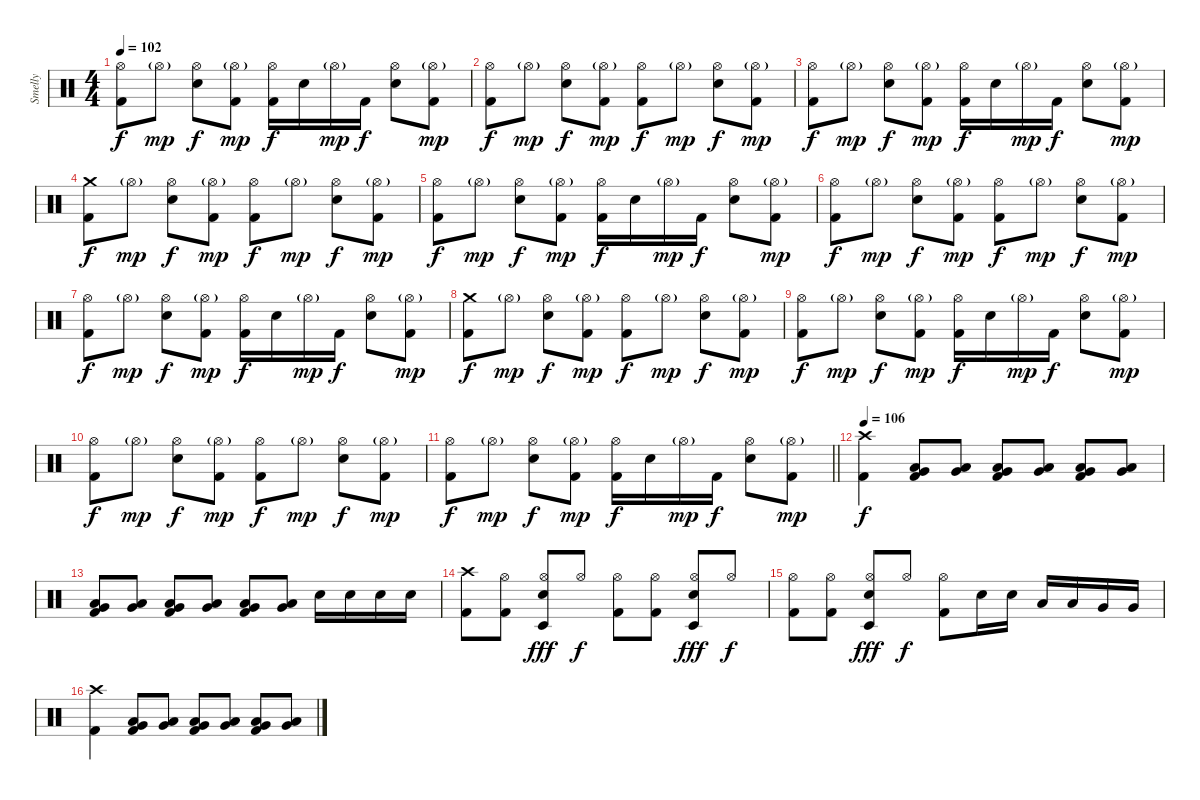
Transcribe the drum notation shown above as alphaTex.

\track ("Smelly" "Smelly") {instrument percussion}
\staff {score}
\articulation defaults
\ts (4 4)
\tempo 102
\clef neutral
\ks c
("Hi-Hat (open)" "Kick (hit) 2").8{dy f} "Hi-Hat (open)"{g}.8{dy mp} ("Hi-Hat (open)" "Electric Snare (hit)").8{dy f} ("Hi-Hat (open)"{g} "Kick (hit) 2").8{dy mp} ("Hi-Hat (open)" "Kick (hit) 2").16{dy f} "Electric Snare (hit)".16 "Hi-Hat (open)"{g}.16{dy mp} "Kick (hit) 2".16{dy f} ("Hi-Hat (open)" "Electric Snare (hit)").8 ("Hi-Hat (open)"{g} "Kick (hit) 2").8{dy mp} |
("Hi-Hat (open)" "Kick (hit) 2").8{dy f} "Hi-Hat (open)"{g}.8{dy mp} ("Hi-Hat (open)" "Electric Snare (hit)").8{dy f} ("Hi-Hat (open)"{g} "Kick (hit) 2").8{dy mp} ("Hi-Hat (open)" "Kick (hit) 2").8{dy f} "Hi-Hat (open)"{g}.8{dy mp} ("Hi-Hat (open)" "Electric Snare (hit)").8{dy f} ("Hi-Hat (open)"{g} "Kick (hit) 2").8{dy mp} |
("Hi-Hat (open)" "Kick (hit) 2").8{dy f} "Hi-Hat (open)"{g}.8{dy mp} ("Hi-Hat (open)" "Electric Snare (hit)").8{dy f} ("Hi-Hat (open)"{g} "Kick (hit) 2").8{dy mp} ("Hi-Hat (open)" "Kick (hit) 2").16{dy f} "Electric Snare (hit)".16 "Hi-Hat (open)"{g}.16{dy mp} "Kick (hit) 2".16{dy f} ("Hi-Hat (open)" "Electric Snare (hit)").8 ("Hi-Hat (open)"{g} "Kick (hit) 2").8{dy mp} |
("Crash medium (hit)" "Kick (hit) 2").8{dy f} "Hi-Hat (open)"{g}.8{dy mp} ("Hi-Hat (open)" "Electric Snare (hit)").8{dy f} ("Hi-Hat (open)"{g} "Kick (hit) 2").8{dy mp} ("Hi-Hat (open)" "Kick (hit) 2").8{dy f} "Hi-Hat (open)"{g}.8{dy mp} ("Hi-Hat (open)" "Electric Snare (hit)").8{dy f} ("Hi-Hat (open)"{g} "Kick (hit) 2").8{dy mp} |
("Hi-Hat (open)" "Kick (hit) 2").8{dy f} "Hi-Hat (open)"{g}.8{dy mp} ("Hi-Hat (open)" "Electric Snare (hit)").8{dy f} ("Hi-Hat (open)"{g} "Kick (hit) 2").8{dy mp} ("Hi-Hat (open)" "Kick (hit) 2").16{dy f} "Electric Snare (hit)".16 "Hi-Hat (open)"{g}.16{dy mp} "Kick (hit) 2".16{dy f} ("Hi-Hat (open)" "Electric Snare (hit)").8 ("Hi-Hat (open)"{g} "Kick (hit) 2").8{dy mp} |
("Hi-Hat (open)" "Kick (hit) 2").8{dy f} "Hi-Hat (open)"{g}.8{dy mp} ("Hi-Hat (open)" "Electric Snare (hit)").8{dy f} ("Hi-Hat (open)"{g} "Kick (hit) 2").8{dy mp} ("Hi-Hat (open)" "Kick (hit) 2").8{dy f} "Hi-Hat (open)"{g}.8{dy mp} ("Hi-Hat (open)" "Electric Snare (hit)").8{dy f} ("Hi-Hat (open)"{g} "Kick (hit) 2").8{dy mp} |
("Hi-Hat (open)" "Kick (hit) 2").8{dy f} "Hi-Hat (open)"{g}.8{dy mp} ("Hi-Hat (open)" "Electric Snare (hit)").8{dy f} ("Hi-Hat (open)"{g} "Kick (hit) 2").8{dy mp} ("Hi-Hat (open)" "Kick (hit) 2").16{dy f} "Electric Snare (hit)".16 "Hi-Hat (open)"{g}.16{dy mp} "Kick (hit) 2".16{dy f} ("Hi-Hat (open)" "Electric Snare (hit)").8 ("Hi-Hat (open)"{g} "Kick (hit) 2").8{dy mp} |
("Crash medium (hit)" "Kick (hit) 2").8{dy f} "Hi-Hat (open)"{g}.8{dy mp} ("Hi-Hat (open)" "Electric Snare (hit)").8{dy f} ("Hi-Hat (open)"{g} "Kick (hit) 2").8{dy mp} ("Hi-Hat (open)" "Kick (hit) 2").8{dy f} "Hi-Hat (open)"{g}.8{dy mp} ("Hi-Hat (open)" "Electric Snare (hit)").8{dy f} ("Hi-Hat (open)"{g} "Kick (hit) 2").8{dy mp} |
("Hi-Hat (open)" "Kick (hit) 2").8{dy f} "Hi-Hat (open)"{g}.8{dy mp} ("Hi-Hat (open)" "Electric Snare (hit)").8{dy f} ("Hi-Hat (open)"{g} "Kick (hit) 2").8{dy mp} ("Hi-Hat (open)" "Kick (hit) 2").16{dy f} "Electric Snare (hit)".16 "Hi-Hat (open)"{g}.16{dy mp} "Kick (hit) 2".16{dy f} ("Hi-Hat (open)" "Electric Snare (hit)").8 ("Hi-Hat (open)"{g} "Kick (hit) 2").8{dy mp} |
("Hi-Hat (open)" "Kick (hit) 2").8{dy f} "Hi-Hat (open)"{g}.8{dy mp} ("Hi-Hat (open)" "Electric Snare (hit)").8{dy f} ("Hi-Hat (open)"{g} "Kick (hit) 2").8{dy mp} ("Hi-Hat (open)" "Kick (hit) 2").8{dy f} "Hi-Hat (open)"{g}.8{dy mp} ("Hi-Hat (open)" "Electric Snare (hit)").8{dy f} ("Hi-Hat (open)"{g} "Kick (hit) 2").8{dy mp} |
\barLineRight lightlight
("Hi-Hat (open)" "Kick (hit) 2").8{dy f} "Hi-Hat (open)"{g}.8{dy mp} ("Hi-Hat (open)" "Electric Snare (hit)").8{dy f} ("Hi-Hat (open)"{g} "Kick (hit) 2").8{dy mp} ("Hi-Hat (open)" "Kick (hit) 2").16{dy f} "Electric Snare (hit)".16 "Hi-Hat (open)"{g}.16{dy mp} "Kick (hit) 2".16{dy f} ("Hi-Hat (open)" "Electric Snare (hit)").8 ("Hi-Hat (open)"{g} "Kick (hit) 2").8{dy mp} |
\section ("" "")
\tempo 106
("Crash high (hit)" "Kick (hit) 2").4{dy f} ("Very Low Tom (hit)" "Low Floor Tom (hit)" "Kick (hit) 2").8 ("Very Low Tom (hit)" "Low Floor Tom (hit)").8 ("Very Low Tom (hit)" "Low Floor Tom (hit)" "Kick (hit) 2").8 ("Very Low Tom (hit)" "Low Floor Tom (hit)").8 ("Very Low Tom (hit)" "Low Floor Tom (hit)" "Kick (hit) 2").8 ("Very Low Tom (hit)" "Low Floor Tom (hit)").8 |
("Very Low Tom (hit)" "Low Floor Tom (hit)" "Kick (hit) 2").8 ("Very Low Tom (hit)" "Low Floor Tom (hit)").8 ("Very Low Tom (hit)" "Low Floor Tom (hit)" "Kick (hit) 2").8 ("Very Low Tom (hit)" "Low Floor Tom (hit)").8 ("Very Low Tom (hit)" "Low Floor Tom (hit)" "Kick (hit) 2").8 ("Very Low Tom (hit)" "Low Floor Tom (hit)").8 "Electric Snare (hit)".16 "Electric Snare (hit)".16 "Electric Snare (hit)".16 "Electric Snare (hit)".16 |
("Crash high (hit)" "Kick (hit) 2").8 ("Hi-Hat (open)" "Kick (hit) 2").8 ("Hi-Hat (open)" "Electric Snare (hit)" "Timbale low (hit)").8{dy fff} "Hi-Hat (open)".8{dy f} ("Hi-Hat (open)" "Kick (hit) 2").8 ("Hi-Hat (open)" "Kick (hit) 2").8 ("Hi-Hat (open)" "Electric Snare (hit)" "Timbale low (hit)").8{dy fff} "Hi-Hat (open)".8{dy f} |
("Hi-Hat (open)" "Kick (hit) 2").8 ("Hi-Hat (open)" "Kick (hit) 2").8 ("Hi-Hat (open)" "Electric Snare (hit)" "Timbale low (hit)").8{dy fff} "Hi-Hat (open)".8{dy f} ("Hi-Hat (open)" "Kick (hit) 2").8 "Electric Snare (hit)".16 "Electric Snare (hit)".16 "Low Tom (hit)".16 "Low Tom (hit)".16 "Very Low Tom (hit)".16 "Very Low Tom (hit)".16 |
("Crash high (hit)" "Kick (hit) 2").4 ("Very Low Tom (hit)" "Low Floor Tom (hit)" "Kick (hit) 2").8 ("Very Low Tom (hit)" "Low Floor Tom (hit)").8 ("Very Low Tom (hit)" "Low Floor Tom (hit)" "Kick (hit) 2").8 ("Very Low Tom (hit)" "Low Floor Tom (hit)").8 ("Very Low Tom (hit)" "Low Floor Tom (hit)" "Kick (hit) 2").8 ("Very Low Tom (hit)" "Low Floor Tom (hit)").8
